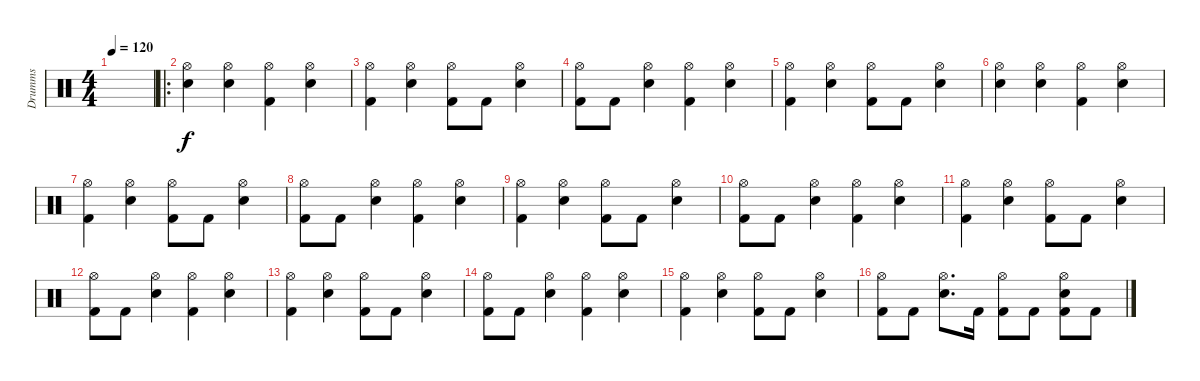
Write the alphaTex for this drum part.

\track ("Drumms" "Drumms") {instrument percussion}
\staff {score}
\articulation defaults
\ts (4 4)
\tempo 120
\clef neutral
\ks c
|
\ro
("Hi-Hat (open)" "Electric Snare (hit)").4 ("Hi-Hat (open)" "Electric Snare (hit)").4 ("Hi-Hat (open)" "Kick (hit) 2").4 ("Hi-Hat (open)" "Electric Snare (hit)").4 |
("Hi-Hat (open)" "Kick (hit) 2").4 ("Hi-Hat (open)" "Electric Snare (hit)").4 ("Hi-Hat (open)" "Kick (hit) 2").8 "Kick (hit) 2".8 ("Hi-Hat (open)" "Electric Snare (hit)").4 |
("Hi-Hat (open)" "Kick (hit) 2").8 "Kick (hit) 2".8 ("Hi-Hat (open)" "Electric Snare (hit)").4 ("Hi-Hat (open)" "Kick (hit) 2").4 ("Hi-Hat (open)" "Electric Snare (hit)").4 |
("Hi-Hat (open)" "Kick (hit) 2").4 ("Hi-Hat (open)" "Electric Snare (hit)").4 ("Hi-Hat (open)" "Kick (hit) 2").8 "Kick (hit) 2".8 ("Hi-Hat (open)" "Electric Snare (hit)").4 |
("Hi-Hat (open)" "Electric Snare (hit)").4 ("Hi-Hat (open)" "Electric Snare (hit)").4 ("Hi-Hat (open)" "Kick (hit) 2").4 ("Hi-Hat (open)" "Electric Snare (hit)").4 |
("Hi-Hat (open)" "Kick (hit) 2").4 ("Hi-Hat (open)" "Electric Snare (hit)").4 ("Hi-Hat (open)" "Kick (hit) 2").8 "Kick (hit) 2".8 ("Hi-Hat (open)" "Electric Snare (hit)").4 |
("Hi-Hat (open)" "Kick (hit) 2").8 "Kick (hit) 2".8 ("Hi-Hat (open)" "Electric Snare (hit)").4 ("Hi-Hat (open)" "Kick (hit) 2").4 ("Hi-Hat (open)" "Electric Snare (hit)").4 |
("Hi-Hat (open)" "Kick (hit) 2").4 ("Hi-Hat (open)" "Electric Snare (hit)").4 ("Hi-Hat (open)" "Kick (hit) 2").8 "Kick (hit) 2".8 ("Hi-Hat (open)" "Electric Snare (hit)").4 |
("Hi-Hat (open)" "Kick (hit) 2").8 "Kick (hit) 2".8 ("Hi-Hat (open)" "Electric Snare (hit)").4 ("Hi-Hat (open)" "Kick (hit) 2").4 ("Hi-Hat (open)" "Electric Snare (hit)").4 |
("Hi-Hat (open)" "Kick (hit) 2").4 ("Hi-Hat (open)" "Electric Snare (hit)").4 ("Hi-Hat (open)" "Kick (hit) 2").8 "Kick (hit) 2".8 ("Hi-Hat (open)" "Electric Snare (hit)").4 |
("Hi-Hat (open)" "Kick (hit) 2").8 "Kick (hit) 2".8 ("Hi-Hat (open)" "Electric Snare (hit)").4 ("Hi-Hat (open)" "Kick (hit) 2").4 ("Hi-Hat (open)" "Electric Snare (hit)").4 |
("Hi-Hat (open)" "Kick (hit) 2").4 ("Hi-Hat (open)" "Electric Snare (hit)").4 ("Hi-Hat (open)" "Kick (hit) 2").8 "Kick (hit) 2".8 ("Hi-Hat (open)" "Electric Snare (hit)").4 |
("Hi-Hat (open)" "Kick (hit) 2").8 "Kick (hit) 2".8 ("Hi-Hat (open)" "Electric Snare (hit)").4 ("Hi-Hat (open)" "Kick (hit) 2").4 ("Hi-Hat (open)" "Electric Snare (hit)").4 |
("Hi-Hat (open)" "Kick (hit) 2").4 ("Hi-Hat (open)" "Electric Snare (hit)").4 ("Hi-Hat (open)" "Kick (hit) 2").8 "Kick (hit) 2".8 ("Hi-Hat (open)" "Electric Snare (hit)").4 |
("Hi-Hat (open)" "Kick (hit) 2").8 "Kick (hit) 2".8 ("Hi-Hat (open)" "Electric Snare (hit)").8{d} "Kick (hit) 2".16 ("Hi-Hat (open)" "Kick (hit) 2").8 "Kick (hit) 2".8 ("Hi-Hat (open)" "Electric Snare (hit)" "Kick (hit) 2").8 "Kick (hit) 2".8
